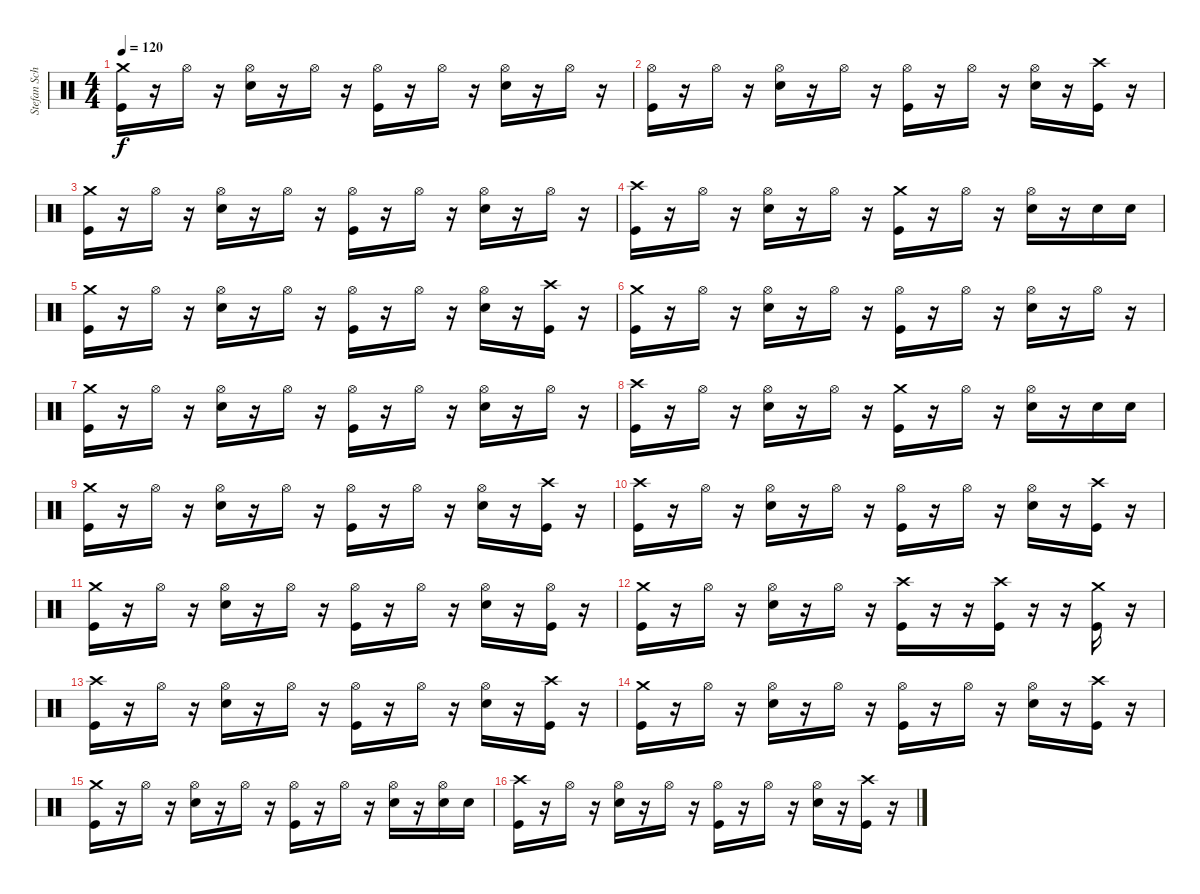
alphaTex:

\track ("Stefan Schwarzmann" "Stefan Sch") {instrument percussion}
\staff {score}
\articulation defaults
\ts (4 4)
\tempo 120
\clef neutral
\ks c
("Kick (hit)" "Crash medium (hit)").16{dy f} r.16 "Hi-Hat (open)".16 r.16 ("Snare (hit) 2" "Hi-Hat (open)").16 r.16 "Hi-Hat (open)".16 r.16 ("Kick (hit)" "Hi-Hat (open)").16 r.16 "Hi-Hat (open)".16 r.16 ("Snare (hit) 2" "Hi-Hat (open)").16 r.16 "Hi-Hat (open)".16 r.16 |
("Kick (hit)" "Hi-Hat (open)").16 r.16 "Hi-Hat (open)".16 r.16 ("Snare (hit) 2" "Hi-Hat (open)").16 r.16 "Hi-Hat (open)".16 r.16 ("Kick (hit)" "Hi-Hat (open)").16 r.16 "Hi-Hat (open)".16 r.16 ("Snare (hit) 2" "Hi-Hat (open)").16 r.16 ("Crash high (hit)" "Kick (hit)").16 r.16 |
("Kick (hit)" "Crash medium (hit)").16 r.16 "Hi-Hat (open)".16 r.16 ("Snare (hit) 2" "Hi-Hat (open)").16 r.16 "Hi-Hat (open)".16 r.16 ("Kick (hit)" "Hi-Hat (open)").16 r.16 "Hi-Hat (open)".16 r.16 ("Snare (hit) 2" "Hi-Hat (open)").16 r.16 "Hi-Hat (open)".16 r.16 |
("Kick (hit)" "Crash high (hit)").16 r.16 "Hi-Hat (open)".16 r.16 ("Snare (hit) 2" "Hi-Hat (open)").16 r.16 "Hi-Hat (open)".16 r.16 ("Kick (hit)" "Crash medium (hit)").16 r.16 "Hi-Hat (open)".16 r.16 ("Snare (hit) 2" "Hi-Hat (open)").16 r.16 "Snare (hit) 2".16 "Snare (hit) 2".16 |
("Kick (hit)" "Crash medium (hit)").16 r.16 "Hi-Hat (open)".16 r.16 ("Snare (hit) 2" "Hi-Hat (open)").16 r.16 "Hi-Hat (open)".16 r.16 ("Kick (hit)" "Hi-Hat (open)").16 r.16 "Hi-Hat (open)".16 r.16 ("Snare (hit) 2" "Hi-Hat (open)").16 r.16 ("Crash high (hit)" "Kick (hit)").16 r.16 |
("Kick (hit)" "Crash medium (hit)").16 r.16 "Hi-Hat (open)".16 r.16 ("Snare (hit) 2" "Hi-Hat (open)").16 r.16 "Hi-Hat (open)".16 r.16 ("Kick (hit)" "Hi-Hat (open)").16 r.16 "Hi-Hat (open)".16 r.16 ("Snare (hit) 2" "Hi-Hat (open)").16 r.16 "Hi-Hat (open)".16 r.16 |
("Kick (hit)" "Crash medium (hit)").16 r.16 "Hi-Hat (open)".16 r.16 ("Snare (hit) 2" "Hi-Hat (open)").16 r.16 "Hi-Hat (open)".16 r.16 ("Kick (hit)" "Hi-Hat (open)").16 r.16 "Hi-Hat (open)".16 r.16 ("Snare (hit) 2" "Hi-Hat (open)").16 r.16 "Hi-Hat (open)".16 r.16 |
("Kick (hit)" "Crash high (hit)").16 r.16 "Hi-Hat (open)".16 r.16 ("Snare (hit) 2" "Hi-Hat (open)").16 r.16 "Hi-Hat (open)".16 r.16 ("Kick (hit)" "Crash medium (hit)").16 r.16 "Hi-Hat (open)".16 r.16 ("Snare (hit) 2" "Hi-Hat (open)").16 r.16 "Snare (hit) 2".16 "Snare (hit) 2".16 |
("Kick (hit)" "Crash medium (hit)").16 r.16 "Hi-Hat (open)".16 r.16 ("Snare (hit) 2" "Hi-Hat (open)").16 r.16 "Hi-Hat (open)".16 r.16 ("Kick (hit)" "Hi-Hat (open)").16 r.16 "Hi-Hat (open)".16 r.16 ("Snare (hit) 2" "Hi-Hat (open)").16 r.16 ("Kick (hit)" "Crash high (hit)").16 r.16 |
("Kick (hit)" "Crash high (hit)").16 r.16 "Hi-Hat (open)".16 r.16 ("Snare (hit) 2" "Hi-Hat (open)").16 r.16 "Hi-Hat (open)".16 r.16 ("Kick (hit)" "Hi-Hat (open)").16 r.16 "Hi-Hat (open)".16 r.16 ("Snare (hit) 2" "Hi-Hat (open)").16 r.16 ("Crash high (hit)" "Kick (hit)").16 r.16 |
("Kick (hit)" "Crash medium (hit)").16 r.16 "Hi-Hat (open)".16 r.16 ("Snare (hit) 2" "Hi-Hat (open)").16 r.16 "Hi-Hat (open)".16 r.16 ("Kick (hit)" "Hi-Hat (open)").16 r.16 "Hi-Hat (open)".16 r.16 ("Snare (hit) 2" "Hi-Hat (open)").16 r.16 ("Kick (hit)" "Hi-Hat (open)").16 r.16 |
("Kick (hit)" "Crash medium (hit)").16 r.16 "Hi-Hat (open)".16 r.16 ("Snare (hit) 2" "Hi-Hat (open)").16 r.16 "Hi-Hat (open)".16 r.16 ("Kick (hit)" "Crash high (hit)").16 r.16 r.16 ("Kick (hit)" "Crash high (hit)").16 r.16 r.16 ("Kick (hit)" "Crash medium (hit)").16 r.16 |
("Kick (hit)" "Crash high (hit)").16 r.16 "Hi-Hat (open)".16 r.16 ("Snare (hit) 2" "Hi-Hat (open)").16 r.16 "Hi-Hat (open)".16 r.16 ("Kick (hit)" "Hi-Hat (open)").16 r.16 "Hi-Hat (open)".16 r.16 ("Snare (hit) 2" "Hi-Hat (open)").16 r.16 ("Crash high (hit)" "Kick (hit)").16 r.16 |
("Kick (hit)" "Crash medium (hit)").16 r.16 "Hi-Hat (open)".16 r.16 ("Snare (hit) 2" "Hi-Hat (open)").16 r.16 "Hi-Hat (open)".16 r.16 ("Kick (hit)" "Hi-Hat (open)").16 r.16 "Hi-Hat (open)".16 r.16 ("Snare (hit) 2" "Hi-Hat (open)").16 r.16 ("Crash high (hit)" "Kick (hit)").16 r.16 |
("Kick (hit)" "Crash medium (hit)").16 r.16 "Hi-Hat (open)".16 r.16 ("Snare (hit) 2" "Hi-Hat (open)").16 r.16 "Hi-Hat (open)".16 r.16 ("Kick (hit)" "Hi-Hat (open)").16 r.16 "Hi-Hat (open)".16 r.16 ("Snare (hit) 2" "Hi-Hat (open)").16 r.16 ("Hi-Hat (open)" "Snare (hit) 2").16 "Snare (hit) 2".16 |
("Kick (hit)" "Crash high (hit)").16 r.16 "Hi-Hat (open)".16 r.16 ("Snare (hit) 2" "Hi-Hat (open)").16 r.16 "Hi-Hat (open)".16 r.16 ("Kick (hit)" "Hi-Hat (open)").16 r.16 "Hi-Hat (open)".16 r.16 ("Snare (hit) 2" "Hi-Hat (open)").16 r.16 ("Crash high (hit)" "Kick (hit)").16 r.16
